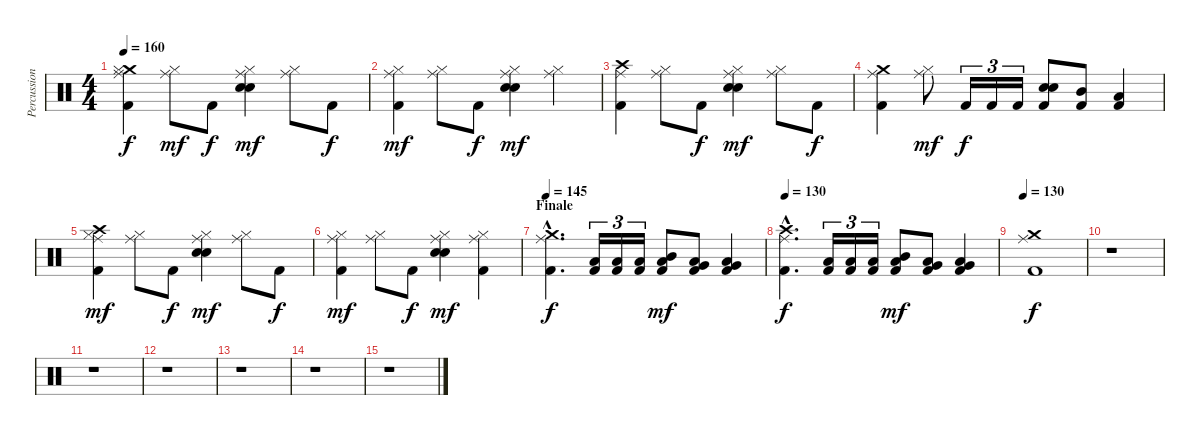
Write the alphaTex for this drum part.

\track ("Percussion" "Percussion") {instrument percussion}
\staff {score}
\articulation defaults
\ts (4 4)
\tempo 160
\clef neutral
\ks c
("Crash medium (hit)" "Ride (middle)" "Hi-Hat (closed)" "Kick (hit) 2").4{dy f} ("Ride (middle)" "Hi-Hat (closed)").8{dy mf} "Kick (hit) 2".8{dy f} ("Ride (middle)" "Hi-Hat (closed)" "Snare (hit) 2" "Electric Snare (hit)").4{dy mf} ("Ride (middle)" "Hi-Hat (closed)").8 "Kick (hit) 2".8{dy f} |
("Ride (middle)" "Hi-Hat (closed)" "Kick (hit) 2").4{dy mf} ("Ride (middle)" "Hi-Hat (closed)").8 "Kick (hit) 2".8{dy f} ("Ride (middle)" "Hi-Hat (closed)" "Snare (hit) 2" "Electric Snare (hit)").4{dy mf} ("Ride (middle)" "Hi-Hat (closed)").4 |
("Crash high (hit)" "Ride (middle)" "Kick (hit) 2").4 ("Ride (middle)" "Hi-Hat (closed)").8 "Kick (hit) 2".8{dy f} ("Ride (middle)" "Hi-Hat (closed)" "Snare (hit) 2" "Electric Snare (hit)").4{dy mf} ("Ride (middle)" "Hi-Hat (closed)").8 "Kick (hit) 2".8{dy f} |
("Crash medium (hit)" "Ride (middle)" "Kick (hit) 2").4 ("Ride (middle)" "Hi-Hat (closed)").8{dy mf} "Kick (hit) 2".16{tu (3 2) dy f} "Kick (hit) 2".16{tu (3 2)} "Kick (hit) 2".16{tu (3 2)} ("Snare (hit) 2" "Electric Snare (hit)" "Kick (hit) 2").8 ("Mid Tom (hit)" "Kick (hit) 2").8 ("Low Tom (hit)" "Kick (hit) 2").4 |
("Crash high (hit)" "Ride (middle)" "Hi-Hat (closed)" "Kick (hit) 2").4{dy mf} ("Ride (middle)" "Hi-Hat (closed)").8 "Kick (hit) 2".8{dy f} ("Ride (middle)" "Hi-Hat (closed)" "Snare (hit) 2" "Electric Snare (hit)").4{dy mf} ("Ride (middle)" "Hi-Hat (closed)").8 "Kick (hit) 2".8{dy f} |
("Ride (middle)" "Hi-Hat (closed)" "Kick (hit) 2").4{dy mf} ("Ride (middle)" "Hi-Hat (closed)").8 "Kick (hit) 2".8{dy f} ("Ride (middle)" "Hi-Hat (closed)" "Snare (hit) 2" "Electric Snare (hit)").4{dy mf} ("Ride (middle)" "Hi-Hat (closed)" "Kick (hit) 2").4 |
\section ("" "Finale")
\tempo 145
("Crash medium (hit)"{hac} "Ride (middle)"{hac} "Kick (hit) 2"{hac}).4{d dy f} ("Low Tom (hit)" "Kick (hit) 2").16{tu (3 2)} ("Low Tom (hit)" "Kick (hit) 2").16{tu (3 2)} ("Low Tom (hit)" "Kick (hit) 2").16{tu (3 2)} ("Mid Tom (hit)" "Low Tom (hit)" "Kick (hit) 2").8{dy mf} ("Low Tom (hit)" "Very Low Tom (hit)" "Kick (hit) 2").8 ("Very Low Tom (hit)" "Low Floor Tom (hit)" "Kick (hit) 2").4 |
\tempo 130
("Crash high (hit)"{hac} "Ride (middle)"{hac} "Kick (hit) 2"{hac}).4{d dy f} ("Low Tom (hit)" "Kick (hit) 2").16{tu (3 2)} ("Low Tom (hit)" "Kick (hit) 2").16{tu (3 2)} ("Low Tom (hit)" "Kick (hit) 2").16{tu (3 2)} ("Mid Tom (hit)" "Low Tom (hit)" "Kick (hit) 2").8{dy mf} ("Low Tom (hit)" "Very Low Tom (hit)" "Kick (hit) 2").8 ("Very Low Tom (hit)" "Low Floor Tom (hit)" "Kick (hit) 2").4 |
\tempo 130
("Crash medium (hit)" "Ride (middle)" "Kick (hit) 2").1{dy f} |
r.1 |
r.1 |
r.1 |
r.1 |
r.1 |
r.1
